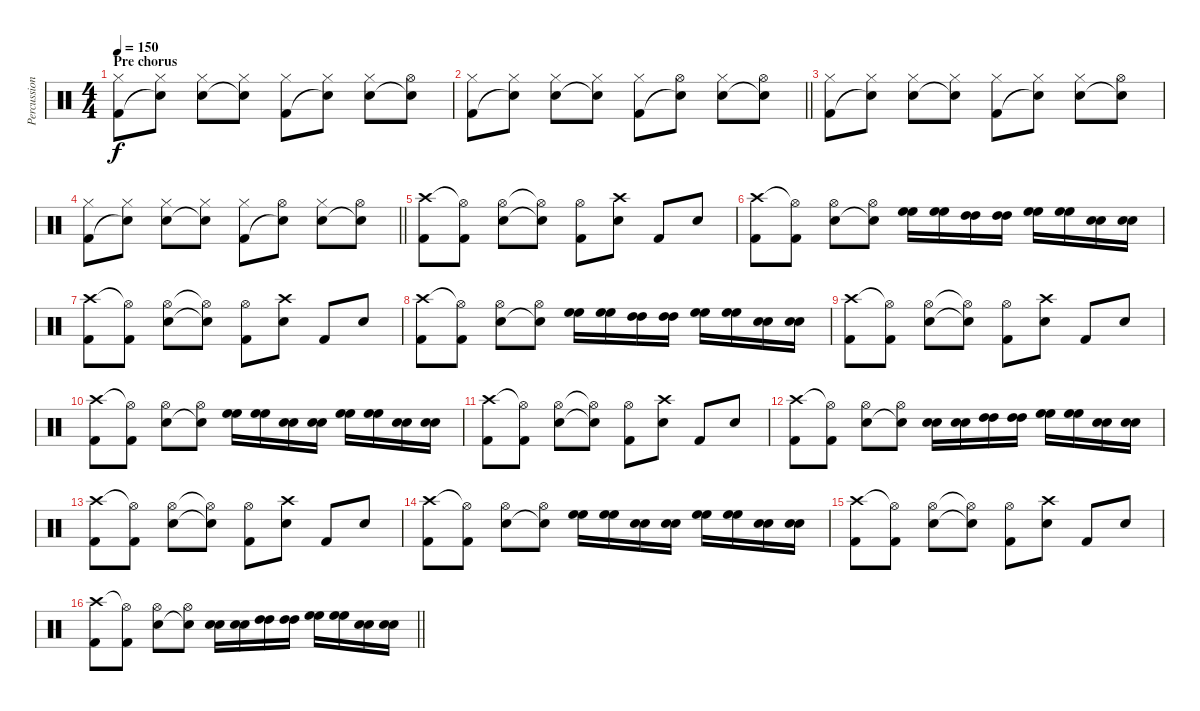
\track ("Percussion" "Percussion") {instrument percussion}
\staff {score}
\articulation defaults
\ts (4 4)
\section ("" "Pre chorus")
\tempo 150
\clef neutral
\ks c
("Hi-Hat (closed)" "Kick (hit) 2").8{dy f} ("Hi-Hat (closed)" "Snare (hit)"{t}).8 ("Hi-Hat (closed)" "Snare (hit) 2").8 ("Hi-Hat (closed)" "Snare (hit)"{t}).8 ("Hi-Hat (closed)" "Kick (hit) 2").8 ("Hi-Hat (closed)" "Snare (hit)"{t}).8 ("Hi-Hat (closed)" "Snare (hit) 2").8 ("Hi-Hat (open)" "Snare (hit)"{t}).8 |
\barLineRight lightlight
("Hi-Hat (closed)" "Kick (hit) 2").8 ("Hi-Hat (closed)" "Snare (hit)"{t}).8 ("Hi-Hat (closed)" "Snare (hit) 2").8 ("Hi-Hat (closed)" "Snare (hit)"{t}).8 ("Hi-Hat (closed)" "Kick (hit) 2").8 ("Hi-Hat (open)" "Snare (hit)"{t}).8 ("Hi-Hat (closed)" "Snare (hit) 2").8 ("Hi-Hat (open)" "Snare (hit)"{t}).8 |
("Hi-Hat (closed)" "Kick (hit) 2").8 ("Hi-Hat (closed)" "Snare (hit)"{t}).8 ("Hi-Hat (closed)" "Snare (hit) 2").8 ("Hi-Hat (closed)" "Snare (hit)"{t}).8 ("Hi-Hat (closed)" "Kick (hit) 2").8 ("Hi-Hat (closed)" "Snare (hit)"{t}).8 ("Hi-Hat (closed)" "Snare (hit) 2").8 ("Hi-Hat (open)" "Snare (hit)"{t}).8 |
\barLineRight lightlight
("Hi-Hat (closed)" "Kick (hit) 2").8 ("Hi-Hat (closed)" "Snare (hit)"{t}).8 ("Hi-Hat (closed)" "Snare (hit) 2").8 ("Hi-Hat (closed)" "Snare (hit)"{t}).8 ("Hi-Hat (closed)" "Kick (hit) 2").8 ("Hi-Hat (open)" "Snare (hit)"{t}).8 ("Hi-Hat (closed)" "Snare (hit) 2").8 ("Hi-Hat (open)" "Snare (hit)"{t}).8 |
("Crash high (hit)" "Kick (hit) 2").8 ("Hi-Hat (open)"{t} "Kick (hit) 2").8 ("Hi-Hat (open)" "Snare (hit) 2").8 ("Hi-Hat (open)"{t} "Snare (hit) 2"{t}).8 ("Hi-Hat (open)" "Kick (hit) 2").8 ("Crash high (hit)" "Snare (hit) 2").8 "Kick (hit) 2".8 "Snare (hit) 2".8 |
("Crash high (hit)" "Kick (hit) 2").8 ("Hi-Hat (open)"{t} "Kick (hit) 2").8 ("Hi-Hat (open)" "Snare (hit) 2").8 ("Hi-Hat (open)" "Snare (hit) 2"{t}).8 ("High Floor Tom (hit)" "High Floor Tom (hit)").16 ("High Floor Tom (hit)" "High Floor Tom (hit)").16 ("High Tom (hit)" "High Tom (hit)").16 ("High Tom (hit)" "High Tom (hit)").16 ("High Floor Tom (hit)" "High Floor Tom (hit)").16 ("High Floor Tom (hit)" "High Floor Tom (hit)").16 ("Snare (hit) 2" "Snare (hit) 2").16 ("Snare (hit) 2" "Snare (hit) 2").16 |
("Crash high (hit)" "Kick (hit) 2").8 ("Hi-Hat (open)"{t} "Kick (hit) 2").8 ("Hi-Hat (open)" "Snare (hit) 2").8 ("Hi-Hat (open)"{t} "Snare (hit) 2"{t}).8 ("Hi-Hat (open)" "Kick (hit) 2").8 ("Crash high (hit)" "Snare (hit) 2").8 "Kick (hit) 2".8 "Snare (hit) 2".8 |
("Crash high (hit)" "Kick (hit) 2").8 ("Hi-Hat (open)"{t} "Kick (hit) 2").8 ("Hi-Hat (open)" "Snare (hit) 2").8 ("Hi-Hat (open)" "Snare (hit) 2"{t}).8 ("High Floor Tom (hit)" "High Floor Tom (hit)").16 ("High Floor Tom (hit)" "High Floor Tom (hit)").16 ("High Tom (hit)" "High Tom (hit)").16 ("High Tom (hit)" "High Tom (hit)").16 ("High Floor Tom (hit)" "High Floor Tom (hit)").16 ("High Floor Tom (hit)" "High Floor Tom (hit)").16 ("Snare (hit) 2" "Snare (hit) 2").16 ("Snare (hit) 2" "Snare (hit) 2").16 |
("Crash high (hit)" "Kick (hit) 2").8 ("Hi-Hat (open)"{t} "Kick (hit) 2").8 ("Hi-Hat (open)" "Snare (hit) 2").8 ("Hi-Hat (open)"{t} "Snare (hit) 2"{t}).8 ("Hi-Hat (open)" "Kick (hit) 2").8 ("Crash high (hit)" "Snare (hit) 2").8 "Kick (hit) 2".8 "Snare (hit) 2".8 |
("Crash high (hit)" "Kick (hit) 2").8 ("Hi-Hat (open)"{t} "Kick (hit) 2").8 ("Hi-Hat (open)" "Snare (hit) 2").8 ("Hi-Hat (open)" "Snare (hit) 2"{t}).8 ("High Floor Tom (hit)" "High Floor Tom (hit)").16 ("High Floor Tom (hit)" "High Floor Tom (hit)").16 ("Snare (hit) 2" "Snare (hit) 2").16 ("Snare (hit) 2" "Snare (hit) 2").16 ("High Floor Tom (hit)" "High Floor Tom (hit)").16 ("High Floor Tom (hit)" "High Floor Tom (hit)").16 ("Snare (hit) 2" "Snare (hit) 2").16 ("Snare (hit) 2" "Snare (hit) 2").16 |
("Crash high (hit)" "Kick (hit) 2").8 ("Hi-Hat (open)"{t} "Kick (hit) 2").8 ("Hi-Hat (open)" "Snare (hit) 2").8 ("Hi-Hat (open)"{t} "Snare (hit) 2"{t}).8 ("Hi-Hat (open)" "Kick (hit) 2").8 ("Crash high (hit)" "Snare (hit) 2").8 "Kick (hit) 2".8 "Snare (hit) 2".8 |
("Crash high (hit)" "Kick (hit) 2").8 ("Hi-Hat (open)"{t} "Kick (hit) 2").8 ("Hi-Hat (open)" "Snare (hit) 2").8 ("Hi-Hat (open)" "Snare (hit) 2"{t}).8 ("Snare (hit) 2" "Snare (hit) 2").16 ("Snare (hit) 2" "Snare (hit) 2").16 ("High Tom (hit)" "High Tom (hit)").16 ("High Tom (hit)" "High Tom (hit)").16 ("High Floor Tom (hit)" "High Floor Tom (hit)").16 ("High Floor Tom (hit)" "High Floor Tom (hit)").16 ("Snare (hit) 2" "Snare (hit) 2").16 ("Snare (hit) 2" "Snare (hit) 2").16 |
("Crash high (hit)" "Kick (hit) 2").8 ("Hi-Hat (open)"{t} "Kick (hit) 2").8 ("Hi-Hat (open)" "Snare (hit) 2").8 ("Hi-Hat (open)"{t} "Snare (hit) 2"{t}).8 ("Hi-Hat (open)" "Kick (hit) 2").8 ("Crash high (hit)" "Snare (hit) 2").8 "Kick (hit) 2".8 "Snare (hit) 2".8 |
("Crash high (hit)" "Kick (hit) 2").8 ("Hi-Hat (open)"{t} "Kick (hit) 2").8 ("Hi-Hat (open)" "Snare (hit) 2").8 ("Hi-Hat (open)" "Snare (hit) 2"{t}).8 ("High Floor Tom (hit)" "High Floor Tom (hit)").16 ("High Floor Tom (hit)" "High Floor Tom (hit)").16 ("Snare (hit) 2" "Snare (hit) 2").16 ("Snare (hit) 2" "Snare (hit) 2").16 ("High Floor Tom (hit)" "High Floor Tom (hit)").16 ("High Floor Tom (hit)" "High Floor Tom (hit)").16 ("Snare (hit) 2" "Snare (hit) 2").16 ("Snare (hit) 2" "Snare (hit) 2").16 |
("Crash high (hit)" "Kick (hit) 2").8 ("Hi-Hat (open)"{t} "Kick (hit) 2").8 ("Hi-Hat (open)" "Snare (hit) 2").8 ("Hi-Hat (open)"{t} "Snare (hit) 2"{t}).8 ("Hi-Hat (open)" "Kick (hit) 2").8 ("Crash high (hit)" "Snare (hit) 2").8 "Kick (hit) 2".8 "Snare (hit) 2".8 |
\barLineRight lightlight
("Crash high (hit)" "Kick (hit) 2").8 ("Hi-Hat (open)"{t} "Kick (hit) 2").8 ("Hi-Hat (open)" "Snare (hit) 2").8 ("Hi-Hat (open)" "Snare (hit) 2"{t}).8 ("Snare (hit) 2" "Snare (hit) 2").16 ("Snare (hit) 2" "Snare (hit) 2").16 ("High Tom (hit)" "High Tom (hit)").16 ("High Tom (hit)" "High Tom (hit)").16 ("High Floor Tom (hit)" "High Floor Tom (hit)").16 ("High Floor Tom (hit)" "High Floor Tom (hit)").16 ("Snare (hit) 2" "Snare (hit) 2").16 ("Snare (hit) 2" "Snare (hit) 2").16
